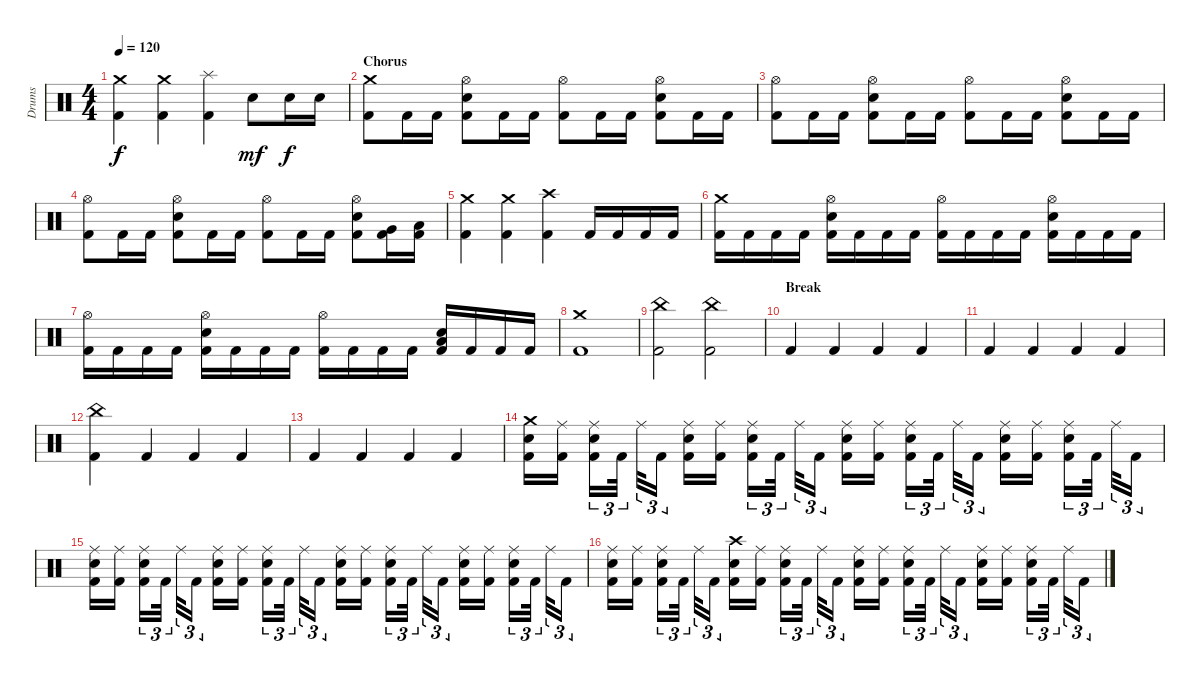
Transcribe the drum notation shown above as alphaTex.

\track ("Drums" "Drums") {instrument percussion}
\staff {score}
\articulation defaults
\ts (4 4)
\tempo 120
\clef neutral
\ks c
("Crash medium (hit)" "Kick (hit) 2").4{dy f} ("Crash medium (hit)" "Kick (hit) 2").4 ("Splash (hit)" "Kick (hit) 2").4 "Snare (hit) 2".8{dy mf} "Snare (hit) 2".16{dy f} "Snare (hit) 2".16 |
\section ("" "Chorus")
("Crash medium (hit)" "Kick (hit) 2").8 "Kick (hit) 2".16 "Kick (hit) 2".16 ("Hi-Hat (open)" "Snare (hit) 2" "Kick (hit) 2").8 "Kick (hit) 2".16 "Kick (hit) 2".16 ("Hi-Hat (open)" "Kick (hit) 2").8 "Kick (hit) 2".16 "Kick (hit) 2".16 ("Hi-Hat (open)" "Snare (hit) 2" "Kick (hit) 2").8 "Kick (hit) 2".16 "Kick (hit) 2".16 |
("Hi-Hat (open)" "Kick (hit) 2").8 "Kick (hit) 2".16 "Kick (hit) 2".16 ("Hi-Hat (open)" "Snare (hit) 2" "Kick (hit) 2").8 "Kick (hit) 2".16 "Kick (hit) 2".16 ("Hi-Hat (open)" "Kick (hit) 2").8 "Kick (hit) 2".16 "Kick (hit) 2".16 ("Hi-Hat (open)" "Snare (hit) 2" "Kick (hit) 2").8 "Kick (hit) 2".16 "Kick (hit) 2".16 |
("Hi-Hat (open)" "Kick (hit) 2").8 "Kick (hit) 2".16 "Kick (hit) 2".16 ("Hi-Hat (open)" "Snare (hit) 2" "Kick (hit) 2").8 "Kick (hit) 2".16 "Kick (hit) 2".16 ("Hi-Hat (open)" "Kick (hit) 2").8 "Kick (hit) 2".16 "Kick (hit) 2".16 ("Hi-Hat (open)" "Snare (hit) 2" "Kick (hit) 2").8 ("Very Low Tom (hit)" "Kick (hit) 2").16 ("Low Floor Tom (hit)" "Kick (hit) 2").16 |
("Crash medium (hit)" "Kick (hit) 2").4 ("Crash medium (hit)" "Kick (hit) 2").4 ("Crash high (hit)" "Kick (hit) 2").4 "Kick (hit) 2".16 "Kick (hit) 2".16 "Kick (hit) 2".16 "Kick (hit) 2".16 |
("Crash medium (hit)" "Kick (hit) 2").16 "Kick (hit) 2".16 "Kick (hit) 2".16 "Kick (hit) 2".16 ("Hi-Hat (open)" "Snare (hit) 2" "Kick (hit) 2").16 "Kick (hit) 2".16 "Kick (hit) 2".16 "Kick (hit) 2".16 ("Hi-Hat (open)" "Kick (hit) 2").16 "Kick (hit) 2".16 "Kick (hit) 2".16 "Kick (hit) 2".16 ("Hi-Hat (open)" "Snare (hit) 2" "Kick (hit) 2").16 "Kick (hit) 2".16 "Kick (hit) 2".16 "Kick (hit) 2".16 |
("Hi-Hat (open)" "Kick (hit) 2").16 "Kick (hit) 2".16 "Kick (hit) 2".16 "Kick (hit) 2".16 ("Hi-Hat (open)" "Snare (hit) 2" "Kick (hit) 2").16 "Kick (hit) 2".16 "Kick (hit) 2".16 "Kick (hit) 2".16 ("Hi-Hat (open)" "Kick (hit) 2").16 "Kick (hit) 2".16 "Kick (hit) 2".16 "Kick (hit) 2".16 ("Low Floor Tom (hit)" "Snare (hit) 2" "Kick (hit) 2").16 "Kick (hit) 2".16 "Kick (hit) 2".16 "Kick (hit) 2".16 |
("Crash medium (hit)" "Kick (hit) 2").1 |
("China (hit)" "Kick (hit) 2").2 ("China (hit)" "Kick (hit) 2").2 |
\section ("" "Break")
"Kick (hit) 2".4 "Kick (hit) 2".4 "Kick (hit) 2".4 "Kick (hit) 2".4 |
"Kick (hit) 2".4 "Kick (hit) 2".4 "Kick (hit) 2".4 "Kick (hit) 2".4 |
("China (hit)" "Kick (hit) 2").4 "Kick (hit) 2".4 "Kick (hit) 2".4 "Kick (hit) 2".4 |
"Kick (hit) 2".4 "Kick (hit) 2".4 "Kick (hit) 2".4 "Kick (hit) 2".4 |
("Crash medium (hit)" "Snare (hit) 2" "Kick (hit) 2").16 ("Ride (middle)" "Kick (hit) 2").16 ("Ride (middle)" "Snare (hit) 2" "Kick (hit) 2").16{tu (3 2)} "Kick (hit) 2".32{tu (3 2)} "Ride (middle)".32{tu (3 2)} "Kick (hit) 2".16{tu (3 2)} ("Ride (middle)" "Snare (hit) 2" "Kick (hit) 2").16 ("Ride (middle)" "Kick (hit) 2").16 ("Ride (middle)" "Snare (hit) 2" "Kick (hit) 2").16{tu (3 2)} "Kick (hit) 2".32{tu (3 2)} "Ride (middle)".32{tu (3 2)} "Kick (hit) 2".16{tu (3 2)} ("Ride (middle)" "Snare (hit) 2" "Kick (hit) 2").16 ("Ride (middle)" "Kick (hit) 2").16 ("Ride (middle)" "Snare (hit) 2" "Kick (hit) 2").16{tu (3 2)} "Kick (hit) 2".32{tu (3 2)} "Ride (middle)".32{tu (3 2)} "Kick (hit) 2".16{tu (3 2)} ("Ride (middle)" "Snare (hit) 2" "Kick (hit) 2").16 ("Ride (middle)" "Kick (hit) 2").16 ("Ride (middle)" "Snare (hit) 2" "Kick (hit) 2").16{tu (3 2)} "Kick (hit) 2".32{tu (3 2)} "Ride (middle)".32{tu (3 2)} "Kick (hit) 2".16{tu (3 2)} |
("Ride (middle)" "Snare (hit) 2" "Kick (hit) 2").16 ("Ride (middle)" "Kick (hit) 2").16 ("Ride (middle)" "Snare (hit) 2" "Kick (hit) 2").16{tu (3 2)} "Kick (hit) 2".32{tu (3 2)} "Ride (middle)".32{tu (3 2)} "Kick (hit) 2".16{tu (3 2)} ("Ride (middle)" "Snare (hit) 2" "Kick (hit) 2").16 ("Ride (middle)" "Kick (hit) 2").16 ("Ride (middle)" "Snare (hit) 2" "Kick (hit) 2").16{tu (3 2)} "Kick (hit) 2".32{tu (3 2)} "Ride (middle)".32{tu (3 2)} "Kick (hit) 2".16{tu (3 2)} ("Ride (middle)" "Snare (hit) 2" "Kick (hit) 2").16 ("Ride (middle)" "Kick (hit) 2").16 ("Ride (middle)" "Snare (hit) 2" "Kick (hit) 2").16{tu (3 2)} "Kick (hit) 2".32{tu (3 2)} "Ride (middle)".32{tu (3 2)} "Kick (hit) 2".16{tu (3 2)} ("Ride (middle)" "Snare (hit) 2" "Kick (hit) 2").16 ("Ride (middle)" "Kick (hit) 2").16 ("Ride (middle)" "Snare (hit) 2" "Kick (hit) 2").16{tu (3 2)} "Kick (hit) 2".32{tu (3 2)} "Ride (middle)".32{tu (3 2)} "Kick (hit) 2".16{tu (3 2)} |
("Ride (middle)" "Snare (hit) 2" "Kick (hit) 2").16 ("Ride (middle)" "Kick (hit) 2").16 ("Ride (middle)" "Snare (hit) 2" "Kick (hit) 2").16{tu (3 2)} "Kick (hit) 2".32{tu (3 2)} "Ride (middle)".32{tu (3 2)} "Kick (hit) 2".16{tu (3 2)} ("Crash high (hit)" "Snare (hit) 2" "Kick (hit) 2").16 ("Ride (middle)" "Kick (hit) 2").16 ("Ride (middle)" "Snare (hit) 2" "Kick (hit) 2").16{tu (3 2)} "Kick (hit) 2".32{tu (3 2)} "Ride (middle)".32{tu (3 2)} "Kick (hit) 2".16{tu (3 2)} ("Ride (middle)" "Snare (hit) 2" "Kick (hit) 2").16 ("Ride (middle)" "Kick (hit) 2").16 ("Ride (middle)" "Snare (hit) 2" "Kick (hit) 2").16{tu (3 2)} "Kick (hit) 2".32{tu (3 2)} "Ride (middle)".32{tu (3 2)} "Kick (hit) 2".16{tu (3 2)} ("Ride (middle)" "Snare (hit) 2" "Kick (hit) 2").16 ("Ride (middle)" "Kick (hit) 2").16 ("Ride (middle)" "Snare (hit) 2" "Kick (hit) 2").16{tu (3 2)} "Kick (hit) 2".32{tu (3 2)} "Ride (middle)".32{tu (3 2)} "Kick (hit) 2".16{tu (3 2)}
